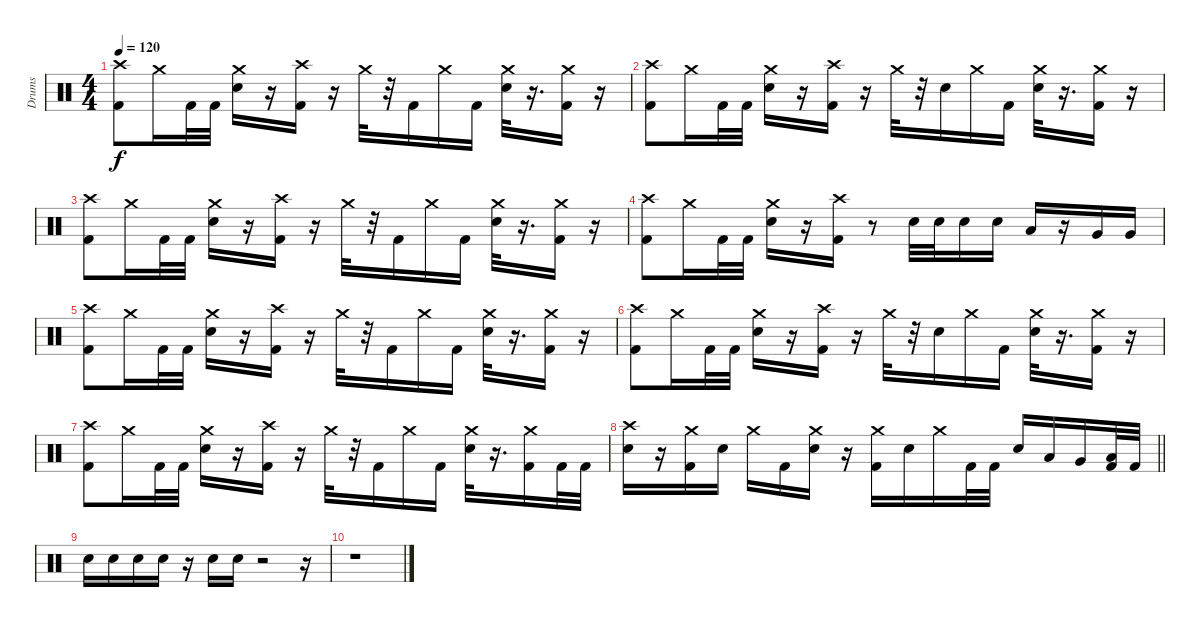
\track ("Drums" "Drums") {instrument percussion}
\staff {score}
\articulation defaults
\ts (4 4)
\section ("" " ")
\tempo 120
\clef neutral
\ks c
("Kick (hit) 2" "Crash high (hit)").8{dy f} "Crash medium (hit)".16 "Kick (hit) 2".32 "Kick (hit) 2".32 ("Snare (hit) 2" "Crash medium (hit)").16 r.16 ("Kick (hit) 2" "Crash high (hit)").16 r.16 "Crash medium (hit)".32 r.32 "Kick (hit) 2".16 "Crash medium (hit)".16 "Kick (hit) 2".16 ("Snare (hit) 2" "Crash medium (hit)").32 r.16{d} ("Kick (hit) 2" "Crash medium (hit)").16 r.16 |
("Kick (hit) 2" "Crash high (hit)").8 "Crash medium (hit)".16 "Kick (hit) 2".32 "Kick (hit) 2".32 ("Snare (hit) 2" "Crash medium (hit)").16 r.16 ("Kick (hit) 2" "Crash high (hit)").16 r.16 "Crash medium (hit)".32 r.32 "Snare (hit) 2".16 "Crash medium (hit)".16 "Kick (hit) 2".16 ("Snare (hit) 2" "Crash medium (hit)").32 r.16{d} ("Kick (hit) 2" "Crash medium (hit)").16 r.16 |
("Kick (hit) 2" "Crash high (hit)").8 "Crash medium (hit)".16 "Kick (hit) 2".32 "Kick (hit) 2".32 ("Snare (hit) 2" "Crash medium (hit)").16 r.16 ("Kick (hit) 2" "Crash high (hit)").16 r.16 "Crash medium (hit)".32 r.32 "Kick (hit) 2".16 "Crash medium (hit)".16 "Kick (hit) 2".16 ("Snare (hit) 2" "Crash medium (hit)").32 r.16{d} ("Kick (hit) 2" "Crash medium (hit)").16 r.16 |
("Kick (hit) 2" "Crash high (hit)").8 "Crash medium (hit)".16 "Kick (hit) 2".32 "Kick (hit) 2".32 ("Snare (hit) 2" "Crash medium (hit)").16 r.16 ("Kick (hit) 2" "Crash high (hit)").16 r.8 "Snare (hit) 2".32 "Snare (hit) 2".32 "Snare (hit) 2".16 "Snare (hit) 2".16 "Low Tom (hit)".16 r.16 "Very Low Tom (hit)".16 "Very Low Tom (hit)".16 |
("Kick (hit) 2" "Crash high (hit)").8 "Crash medium (hit)".16 "Kick (hit) 2".32 "Kick (hit) 2".32 ("Snare (hit) 2" "Crash medium (hit)").16 r.16 ("Kick (hit) 2" "Crash high (hit)").16 r.16 "Crash medium (hit)".32 r.32 "Kick (hit) 2".16 "Crash medium (hit)".16 "Kick (hit) 2".16 ("Snare (hit) 2" "Crash medium (hit)").32 r.16{d} ("Kick (hit) 2" "Crash medium (hit)").16 r.16 |
("Kick (hit) 2" "Crash high (hit)").8 "Crash medium (hit)".16 "Kick (hit) 2".32 "Kick (hit) 2".32 ("Snare (hit) 2" "Crash medium (hit)").16 r.16 ("Kick (hit) 2" "Crash high (hit)").16 r.16 "Crash medium (hit)".32 r.32 "Snare (hit) 2".16 "Crash medium (hit)".16 "Kick (hit) 2".16 ("Snare (hit) 2" "Crash medium (hit)").32 r.16{d} ("Kick (hit) 2" "Crash medium (hit)").16 r.16 |
("Kick (hit) 2" "Crash high (hit)").8 "Crash medium (hit)".16 "Kick (hit) 2".32 "Kick (hit) 2".32 ("Snare (hit) 2" "Crash medium (hit)").16 r.16 ("Kick (hit) 2" "Crash high (hit)").16 r.16 "Crash medium (hit)".32 r.32 "Kick (hit) 2".16 "Crash medium (hit)".16 "Kick (hit) 2".16 ("Snare (hit) 2" "Crash medium (hit)").32 r.16{d} ("Kick (hit) 2" "Crash medium (hit)").16 "Kick (hit) 2".32 "Kick (hit) 2".32 |
\barLineRight lightlight
("Snare (hit) 2" "Crash high (hit)").16 r.16 ("Kick (hit) 2" "Crash medium (hit)").16 "Snare (hit) 2".16 "Crash medium (hit)".16 "Kick (hit) 2".16 ("Snare (hit) 2" "Crash medium (hit)").16 r.16 ("Kick (hit) 2" "Crash medium (hit)").16 "Snare (hit) 2".16 "Crash medium (hit)".16 "Kick (hit) 2".32 "Kick (hit) 2".32 "Snare (hit) 2".16 "Low Tom (hit)".16 "Very Low Tom (hit)".16 ("Kick (hit) 2" "Low Floor Tom (hit)").32 "Kick (hit) 2".32 |
\section ("" " ")
"Snare (hit) 2".16 "Snare (hit) 2".16 "Snare (hit) 2".16 "Snare (hit) 2".16 r.16 "Snare (hit) 2".16 "Snare (hit) 2".16 r.2 r.16 |
r.1
